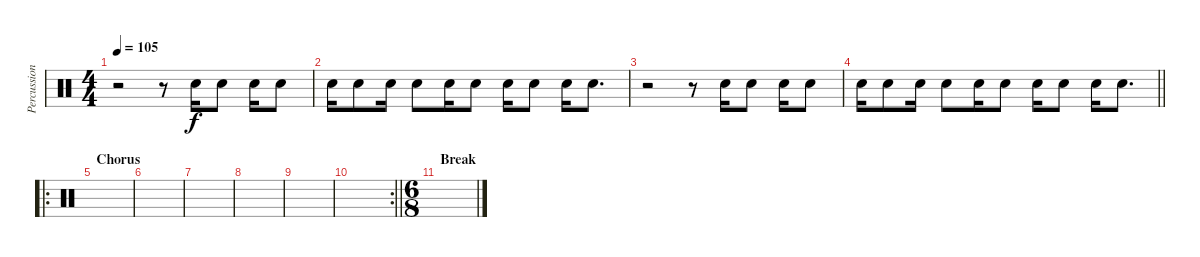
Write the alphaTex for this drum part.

\track ("Percussion FX" "Percussion") {instrument percussion}
\staff {score}
\articulation defaults
\ts (4 4)
\tempo 105
\clef neutral
\ks c
r.2{dy f volume 3} r.8{volume 0} "Electric Snare (hit)".16 "Electric Snare (hit)".8 "Electric Snare (hit)".16 "Electric Snare (hit)".8 |
"Electric Snare (hit)".16 "Electric Snare (hit)".8 "Electric Snare (hit)".16 "Electric Snare (hit)".8 "Electric Snare (hit)".16 "Electric Snare (hit)".8 "Electric Snare (hit)".16 "Electric Snare (hit)".8 "Electric Snare (hit)".16 "Electric Snare (hit)".8{d} |
r.2{volume 3} r.8{volume 0} "Electric Snare (hit)".16 "Electric Snare (hit)".8 "Electric Snare (hit)".16 "Electric Snare (hit)".8 |
\barLineRight lightlight "Electric Snare (hit)".16 "Electric Snare (hit)".8 "Electric Snare (hit)".16 "Electric Snare (hit)".8 "Electric Snare (hit)".16 "Electric Snare (hit)".8 "Electric Snare (hit)".16 "Electric Snare (hit)".8 "Electric Snare (hit)".16 "Electric Snare (hit)".8{d}
|
\ro
\section ("" "Chorus")
|
|
|
|
|
\rc 2
\barLineRight lightlight
|
\ts (6 8)
\section ("" "Break")
